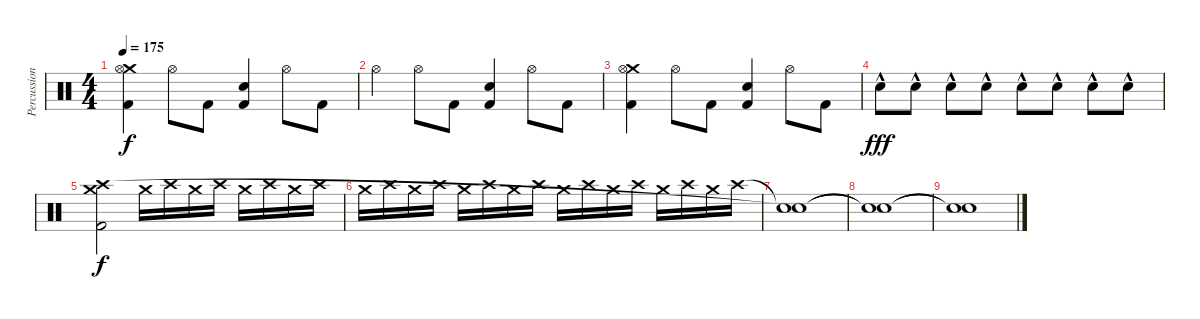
\track ("Percussion" "Percussion") {instrument percussion}
\staff {score}
\articulation defaults
\ts (4 4)
\tempo 175
\clef neutral
\ks c
("Crash medium (hit)" "Hi-Hat (open)" "Kick (hit) 2").4{dy f} "Hi-Hat (open)".8 "Kick (hit) 2".8 ("Kick (hit) 2" "Snare (hit) 2").4 "Hi-Hat (open)".8 "Kick (hit) 2".8 |
"Hi-Hat (open)".4 "Hi-Hat (open)".8 "Kick (hit) 2".8 ("Kick (hit) 2" "Snare (hit) 2").4 "Hi-Hat (open)".8 "Kick (hit) 2".8 |
("Crash medium (hit)" "Hi-Hat (open)" "Kick (hit) 2").4 "Hi-Hat (open)".8 "Kick (hit) 2".8 ("Kick (hit) 2" "Snare (hit) 2").4 "Hi-Hat (open)".8 "Kick (hit) 2".8 |
"Snare (hit) 2"{hac}.8{dy fff} "Snare (hit) 2"{hac}.8 "Snare (hit) 2"{hac}.8 "Snare (hit) 2"{hac}.8 "Snare (hit) 2"{hac}.8 "Snare (hit) 2"{hac}.8 "Snare (hit) 2"{hac}.8 "Snare (hit) 2"{hac}.8 |
("Crash medium (hit)" "Crash high (hit)" "Kick (hit) 2").2{dy f} "Crash medium (hit)".16 "Crash high (hit)".16 "Crash medium (hit)".16 "Crash high (hit)".16 "Crash medium (hit)".16 "Crash high (hit)".16 "Crash medium (hit)".16 "Crash high (hit)".16 |
"Crash medium (hit)".16 "Crash high (hit)".16 "Crash medium (hit)".16 "Crash high (hit)".16 "Crash medium (hit)".16 "Crash high (hit)".16 "Crash medium (hit)".16 "Crash high (hit)".16 "Crash medium (hit)".16 "Crash high (hit)".16 "Crash medium (hit)".16 "Crash high (hit)".16 "Crash medium (hit)".16 "Crash high (hit)".16 "Crash medium (hit)".16 "Crash high (hit)".16 |
("Snare (hit)"{t} "Snare (hit)"{t}).1 |
("Snare (hit)"{t} "Snare (hit)"{t}).1 |
("Snare (hit)"{t} "Snare (hit)"{t}).1
